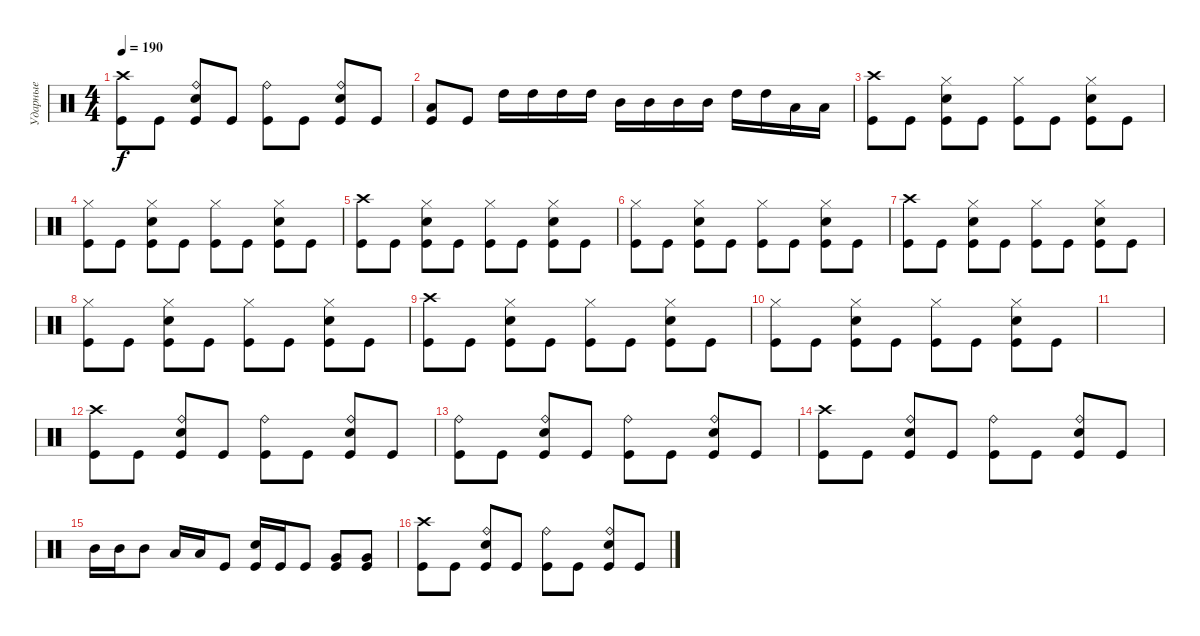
\track ("Ударные" "Ударные") {instrument percussion}
\staff {score}
\articulation defaults
\ts (4 4)
\tempo 190
\clef neutral
\ks c
("Crash high (hit)" "Kick (hit)").8{dy f} "Kick (hit)".8 ("Ride (bell)" "Electric Snare (hit)" "Kick (hit)").8 "Kick (hit)".8 ("Ride (bell)" "Kick (hit)").8 "Kick (hit)".8 ("Ride (bell)" "Electric Snare (hit)" "Kick (hit)").8 "Kick (hit)".8 |
("Low Tom (hit)" "Kick (hit)").8 "Kick (hit)".8 "High Tom (hit)".16 "High Tom (hit)".16 "High Tom (hit)".16 "High Tom (hit)".16 "Mid Tom (hit)".16 "Mid Tom (hit)".16 "Mid Tom (hit)".16 "Mid Tom (hit)".16 "High Tom (hit)".16 "High Tom (hit)".16 "Low Tom (hit)".16 "Low Tom (hit)".16 |
("Crash high (hit)" "Kick (hit)").8 "Kick (hit)".8 ("Hi-Hat (closed)" "Electric Snare (hit)" "Kick (hit)").8 "Kick (hit)".8 ("Hi-Hat (closed)" "Kick (hit)").8 "Kick (hit)".8 ("Hi-Hat (closed)" "Electric Snare (hit)" "Kick (hit)").8 "Kick (hit)".8 |
("Hi-Hat (closed)" "Kick (hit)").8 "Kick (hit)".8 ("Hi-Hat (closed)" "Electric Snare (hit)" "Kick (hit)").8 "Kick (hit)".8 ("Hi-Hat (closed)" "Kick (hit)").8 "Kick (hit)".8 ("Hi-Hat (closed)" "Electric Snare (hit)" "Kick (hit)").8 "Kick (hit)".8 |
("Crash high (hit)" "Kick (hit)").8 "Kick (hit)".8 ("Hi-Hat (closed)" "Electric Snare (hit)" "Kick (hit)").8 "Kick (hit)".8 ("Hi-Hat (closed)" "Kick (hit)").8 "Kick (hit)".8 ("Hi-Hat (closed)" "Electric Snare (hit)" "Kick (hit)").8 "Kick (hit)".8 |
("Hi-Hat (closed)" "Kick (hit)").8 "Kick (hit)".8 ("Hi-Hat (closed)" "Electric Snare (hit)" "Kick (hit)").8 "Kick (hit)".8 ("Hi-Hat (closed)" "Kick (hit)").8 "Kick (hit)".8 ("Hi-Hat (closed)" "Electric Snare (hit)" "Kick (hit)").8 "Kick (hit)".8 |
("Crash high (hit)" "Kick (hit)").8 "Kick (hit)".8 ("Hi-Hat (closed)" "Electric Snare (hit)" "Kick (hit)").8 "Kick (hit)".8 ("Hi-Hat (closed)" "Kick (hit)").8 "Kick (hit)".8 ("Hi-Hat (closed)" "Electric Snare (hit)" "Kick (hit)").8 "Kick (hit)".8 |
("Hi-Hat (closed)" "Kick (hit)").8 "Kick (hit)".8 ("Hi-Hat (closed)" "Electric Snare (hit)" "Kick (hit)").8 "Kick (hit)".8 ("Hi-Hat (closed)" "Kick (hit)").8 "Kick (hit)".8 ("Hi-Hat (closed)" "Electric Snare (hit)" "Kick (hit)").8 "Kick (hit)".8 |
("Crash high (hit)" "Kick (hit)").8 "Kick (hit)".8 ("Hi-Hat (closed)" "Electric Snare (hit)" "Kick (hit)").8 "Kick (hit)".8 ("Hi-Hat (closed)" "Kick (hit)").8 "Kick (hit)".8 ("Hi-Hat (closed)" "Electric Snare (hit)" "Kick (hit)").8 "Kick (hit)".8 |
("Hi-Hat (closed)" "Kick (hit)").8 "Kick (hit)".8 ("Hi-Hat (closed)" "Electric Snare (hit)" "Kick (hit)").8 "Kick (hit)".8 ("Hi-Hat (closed)" "Kick (hit)").8 "Kick (hit)".8 ("Hi-Hat (closed)" "Electric Snare (hit)" "Kick (hit)").8 "Kick (hit)".8 |
|
("Crash high (hit)" "Kick (hit)").8 "Kick (hit)".8 ("Ride (bell)" "Electric Snare (hit)" "Kick (hit)").8 "Kick (hit)".8 ("Ride (bell)" "Kick (hit)").8 "Kick (hit)".8 ("Ride (bell)" "Electric Snare (hit)" "Kick (hit)").8 "Kick (hit)".8 |
("Ride (bell)" "Kick (hit)").8 "Kick (hit)".8 ("Ride (bell)" "Electric Snare (hit)" "Kick (hit)").8 "Kick (hit)".8 ("Ride (bell)" "Kick (hit)").8 "Kick (hit)".8 ("Ride (bell)" "Electric Snare (hit)" "Kick (hit)").8 "Kick (hit)".8 |
("Crash high (hit)" "Kick (hit)").8 "Kick (hit)".8 ("Ride (bell)" "Electric Snare (hit)" "Kick (hit)").8 "Kick (hit)".8 ("Ride (bell)" "Kick (hit)").8 "Kick (hit)".8 ("Ride (bell)" "Electric Snare (hit)" "Kick (hit)").8 "Kick (hit)".8 |
"Mid Tom (hit)".16 "Mid Tom (hit)".16 "Mid Tom (hit)".8 "Low Tom (hit)".16 "Low Tom (hit)".16 "Kick (hit)".8 ("Electric Snare (hit)" "Kick (hit)").16 "Kick (hit)".16 "Kick (hit)".8 ("Very Low Tom (hit)" "Kick (hit)").8 ("Very Low Tom (hit)" "Kick (hit)").8 |
("Crash high (hit)" "Kick (hit)").8 "Kick (hit)".8 ("Ride (bell)" "Electric Snare (hit)" "Kick (hit)").8 "Kick (hit)".8 ("Ride (bell)" "Kick (hit)").8 "Kick (hit)".8 ("Ride (bell)" "Electric Snare (hit)" "Kick (hit)").8 "Kick (hit)".8
